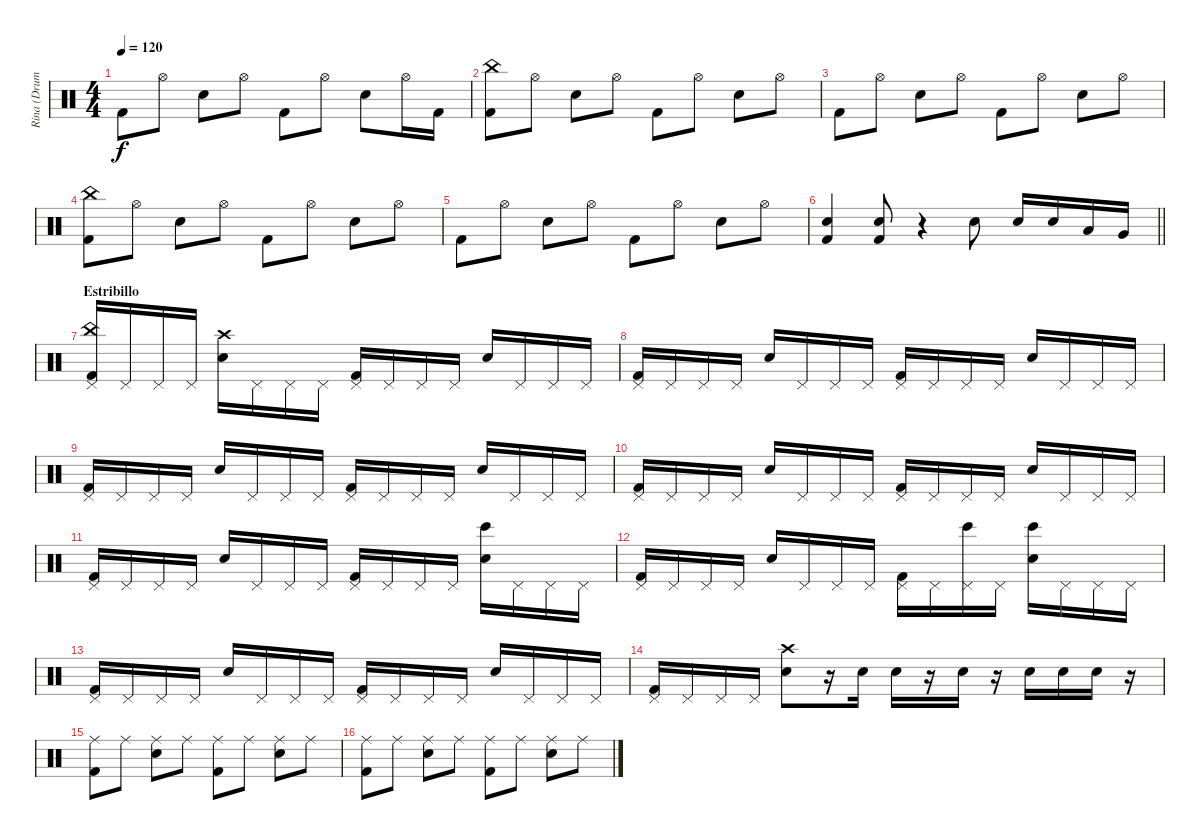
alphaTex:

\track ("Rina (Drums)" "Rina (Drum") {instrument percussion}
\staff {score}
\articulation defaults
\ts (4 4)
\tempo 120
\clef neutral
\ks c "Kick (hit) 2".8{dy f} "Hi-Hat (open)".8 "Snare (hit) 2".8 "Hi-Hat (open)".8 "Kick (hit) 2".8 "Hi-Hat (open)".8 "Snare (hit) 2".8 "Hi-Hat (open)".16 "Kick (hit) 2".16
|
("China (hit)" "Kick (hit) 2").8 "Hi-Hat (open)".8 "Snare (hit) 2".8 "Hi-Hat (open)".8 "Kick (hit) 2".8 "Hi-Hat (open)".8 "Snare (hit) 2".8 "Hi-Hat (open)".8 |
"Kick (hit) 2".8 "Hi-Hat (open)".8 "Snare (hit) 2".8 "Hi-Hat (open)".8 "Kick (hit) 2".8 "Hi-Hat (open)".8 "Snare (hit) 2".8 "Hi-Hat (open)".8 |
("China (hit)" "Kick (hit) 2").8 "Hi-Hat (open)".8 "Snare (hit) 2".8 "Hi-Hat (open)".8 "Kick (hit) 2".8 "Hi-Hat (open)".8 "Snare (hit) 2".8 "Hi-Hat (open)".8 |
"Kick (hit) 2".8 "Hi-Hat (open)".8 "Snare (hit) 2".8 "Hi-Hat (open)".8 "Kick (hit) 2".8 "Hi-Hat (open)".8 "Snare (hit) 2".8 "Hi-Hat (open)".8 |
\barLineRight lightlight
("Snare (hit) 2" "Kick (hit) 2").4 ("Snare (hit) 2" "Kick (hit) 2").8 r.4 "Snare (hit) 2".8 "Snare (hit) 2".16 "Snare (hit) 2".16 "Low Tom (hit)".16 "Very Low Tom (hit)".16 |
\section ("" "Estribillo")
("Pedal Hi-Hat (hit)" "China (hit)" "Kick (hit) 2").16 "Pedal Hi-Hat (hit)".16 "Pedal Hi-Hat (hit)".16 "Pedal Hi-Hat (hit)".16 ("Crash high (hit)" "Snare (hit) 2").16 "Pedal Hi-Hat (hit)".16 "Pedal Hi-Hat (hit)".16 "Pedal Hi-Hat (hit)".16 ("Pedal Hi-Hat (hit)" "Kick (hit) 2").16 "Pedal Hi-Hat (hit)".16 "Pedal Hi-Hat (hit)".16 "Pedal Hi-Hat (hit)".16 "Snare (hit) 2".16 "Pedal Hi-Hat (hit)".16 "Pedal Hi-Hat (hit)".16 "Pedal Hi-Hat (hit)".16 |
("Pedal Hi-Hat (hit)" "Kick (hit) 2").16 "Pedal Hi-Hat (hit)".16 "Pedal Hi-Hat (hit)".16 "Pedal Hi-Hat (hit)".16 "Snare (hit) 2".16 "Pedal Hi-Hat (hit)".16 "Pedal Hi-Hat (hit)".16 "Pedal Hi-Hat (hit)".16 ("Pedal Hi-Hat (hit)" "Kick (hit) 2").16 "Pedal Hi-Hat (hit)".16 "Pedal Hi-Hat (hit)".16 "Pedal Hi-Hat (hit)".16 "Snare (hit) 2".16 "Pedal Hi-Hat (hit)".16 "Pedal Hi-Hat (hit)".16 "Pedal Hi-Hat (hit)".16 |
("Pedal Hi-Hat (hit)" "Kick (hit) 2").16 "Pedal Hi-Hat (hit)".16 "Pedal Hi-Hat (hit)".16 "Pedal Hi-Hat (hit)".16 "Snare (hit) 2".16 "Pedal Hi-Hat (hit)".16 "Pedal Hi-Hat (hit)".16 "Pedal Hi-Hat (hit)".16 ("Pedal Hi-Hat (hit)" "Kick (hit) 2").16 "Pedal Hi-Hat (hit)".16 "Pedal Hi-Hat (hit)".16 "Pedal Hi-Hat (hit)".16 "Snare (hit) 2".16 "Pedal Hi-Hat (hit)".16 "Pedal Hi-Hat (hit)".16 "Pedal Hi-Hat (hit)".16 |
("Pedal Hi-Hat (hit)" "Kick (hit) 2").16 "Pedal Hi-Hat (hit)".16 "Pedal Hi-Hat (hit)".16 "Pedal Hi-Hat (hit)".16 "Snare (hit) 2".16 "Pedal Hi-Hat (hit)".16 "Pedal Hi-Hat (hit)".16 "Pedal Hi-Hat (hit)".16 ("Pedal Hi-Hat (hit)" "Kick (hit) 2").16 "Pedal Hi-Hat (hit)".16 "Pedal Hi-Hat (hit)".16 "Pedal Hi-Hat (hit)".16 "Snare (hit) 2".16 "Pedal Hi-Hat (hit)".16 "Pedal Hi-Hat (hit)".16 "Pedal Hi-Hat (hit)".16 |
("Pedal Hi-Hat (hit)" "Kick (hit) 2").16 "Pedal Hi-Hat (hit)".16 "Pedal Hi-Hat (hit)".16 "Pedal Hi-Hat (hit)".16 "Snare (hit) 2".16 "Pedal Hi-Hat (hit)".16 "Pedal Hi-Hat (hit)".16 "Pedal Hi-Hat (hit)".16 ("Pedal Hi-Hat (hit)" "Kick (hit) 2").16 "Pedal Hi-Hat (hit)".16 "Pedal Hi-Hat (hit)".16 "Pedal Hi-Hat (hit)".16 ("Bongo High (hit)" "Snare (hit) 2").16 "Pedal Hi-Hat (hit)".16 "Pedal Hi-Hat (hit)".16 "Pedal Hi-Hat (hit)".16 |
("Pedal Hi-Hat (hit)" "Kick (hit) 2").16 "Pedal Hi-Hat (hit)".16 "Pedal Hi-Hat (hit)".16 "Pedal Hi-Hat (hit)".16 "Snare (hit) 2".16 "Pedal Hi-Hat (hit)".16 "Pedal Hi-Hat (hit)".16 "Pedal Hi-Hat (hit)".16 ("Pedal Hi-Hat (hit)" "Kick (hit) 2").16 "Pedal Hi-Hat (hit)".16 ("Pedal Hi-Hat (hit)" "Bongo High (hit)").16 "Pedal Hi-Hat (hit)".16 ("Bongo High (hit)" "Snare (hit) 2").16 "Pedal Hi-Hat (hit)".16 "Pedal Hi-Hat (hit)".16 "Pedal Hi-Hat (hit)".16 |
("Pedal Hi-Hat (hit)" "Kick (hit) 2").16 "Pedal Hi-Hat (hit)".16 "Pedal Hi-Hat (hit)".16 "Pedal Hi-Hat (hit)".16 "Snare (hit) 2".16 "Pedal Hi-Hat (hit)".16 "Pedal Hi-Hat (hit)".16 "Pedal Hi-Hat (hit)".16 ("Pedal Hi-Hat (hit)" "Kick (hit) 2").16 "Pedal Hi-Hat (hit)".16 "Pedal Hi-Hat (hit)".16 "Pedal Hi-Hat (hit)".16 "Snare (hit) 2".16 "Pedal Hi-Hat (hit)".16 "Pedal Hi-Hat (hit)".16 "Pedal Hi-Hat (hit)".16 |
("Pedal Hi-Hat (hit)" "Kick (hit) 2").16 "Pedal Hi-Hat (hit)".16 "Pedal Hi-Hat (hit)".16 "Pedal Hi-Hat (hit)".16 ("Crash high (hit)" "Snare (hit) 2").8 r.16 "Snare (hit) 2".16 "Snare (hit) 2".16 r.16 "Snare (hit) 2".16 r.16 "Snare (hit) 2".16 "Snare (hit) 2".16 "Snare (hit) 2".16 r.16 |
("Ride (middle)" "Kick (hit) 2").8 "Ride (middle)".8 ("Ride (middle)" "Snare (hit) 2").8 "Ride (middle)".8 ("Ride (middle)" "Kick (hit) 2").8 "Ride (middle)".8 ("Ride (middle)" "Snare (hit) 2").8 "Ride (middle)".8 |
("Ride (middle)" "Kick (hit) 2").8 "Ride (middle)".8 ("Ride (middle)" "Snare (hit) 2").8 "Ride (middle)".8 ("Ride (middle)" "Kick (hit) 2").8 "Ride (middle)".8 ("Ride (middle)" "Snare (hit) 2").8 "Ride (middle)".8
